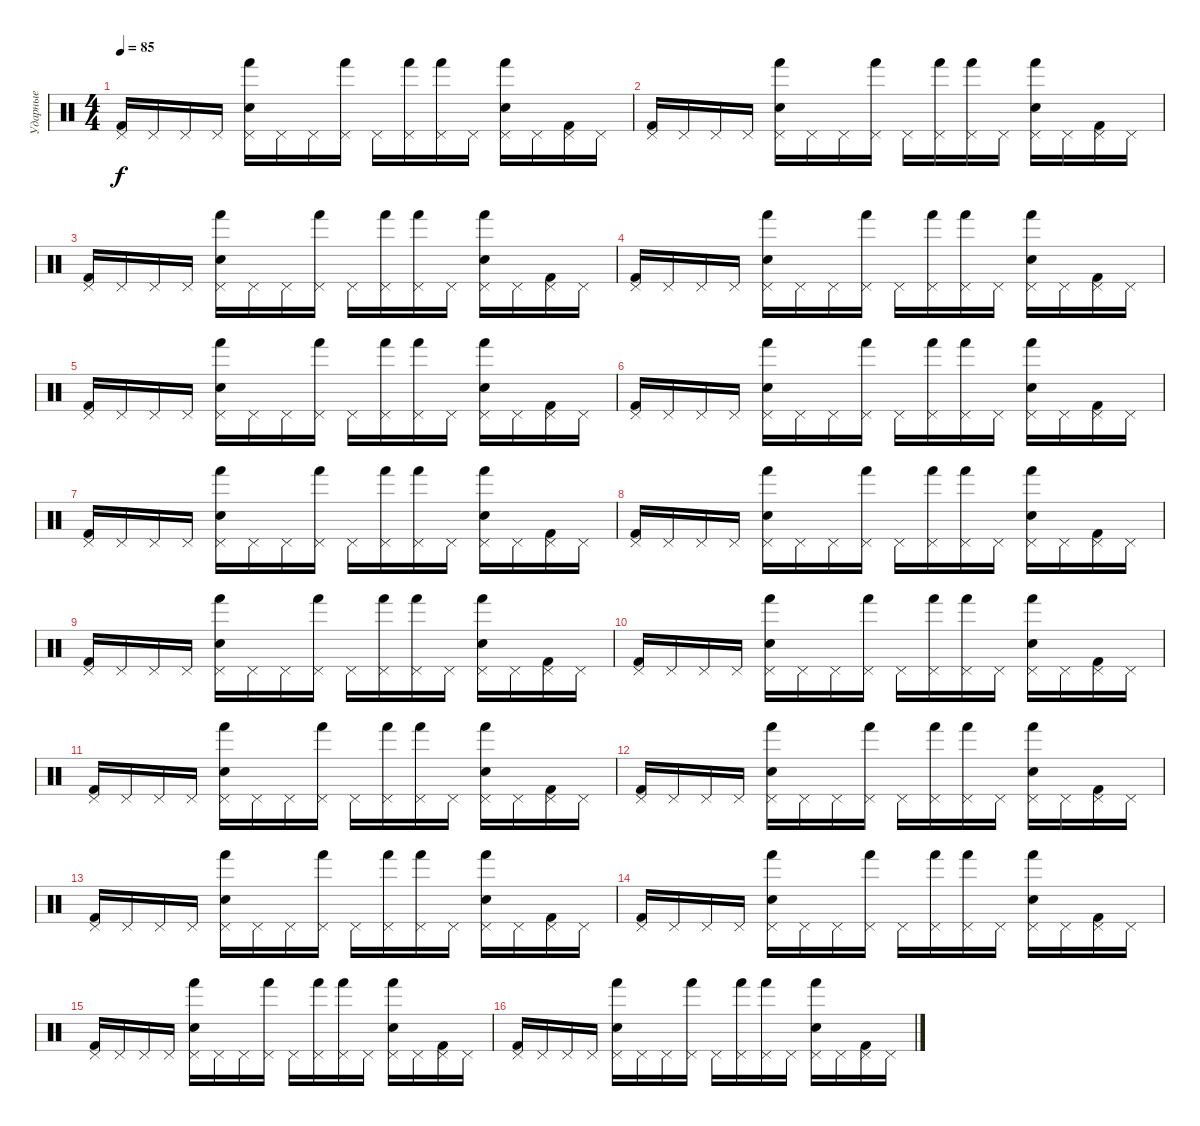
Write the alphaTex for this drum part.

\track ("Ударные" "Ударные") {instrument percussion}
\staff {score}
\articulation defaults
\ts (4 4)
\tempo 85
\clef neutral
\ks c
("Pedal Hi-Hat (hit)" "Kick (hit) 2").16{dy f} "Pedal Hi-Hat (hit)".16 "Pedal Hi-Hat (hit)".16 "Pedal Hi-Hat (hit)".16 ("Pedal Hi-Hat (hit)" "Electric Snare (hit)" "Hand (hit)").16 "Pedal Hi-Hat (hit)".16 "Pedal Hi-Hat (hit)".16 ("Pedal Hi-Hat (hit)" "Hand (hit)").16 "Pedal Hi-Hat (hit)".16 ("Pedal Hi-Hat (hit)" "Hand (hit)").16 ("Pedal Hi-Hat (hit)" "Hand (hit)").16 "Pedal Hi-Hat (hit)".16 ("Pedal Hi-Hat (hit)" "Electric Snare (hit)" "Hand (hit)").16 "Pedal Hi-Hat (hit)".16 ("Pedal Hi-Hat (hit)" "Kick (hit) 2").16 "Pedal Hi-Hat (hit)".16 |
("Pedal Hi-Hat (hit)" "Kick (hit) 2").16 "Pedal Hi-Hat (hit)".16 "Pedal Hi-Hat (hit)".16 "Pedal Hi-Hat (hit)".16 ("Pedal Hi-Hat (hit)" "Electric Snare (hit)" "Hand (hit)").16 "Pedal Hi-Hat (hit)".16 "Pedal Hi-Hat (hit)".16 ("Pedal Hi-Hat (hit)" "Hand (hit)").16 "Pedal Hi-Hat (hit)".16 ("Pedal Hi-Hat (hit)" "Hand (hit)").16 ("Pedal Hi-Hat (hit)" "Hand (hit)").16 "Pedal Hi-Hat (hit)".16 ("Pedal Hi-Hat (hit)" "Electric Snare (hit)" "Hand (hit)").16 "Pedal Hi-Hat (hit)".16 ("Pedal Hi-Hat (hit)" "Kick (hit) 2").16 "Pedal Hi-Hat (hit)".16 |
("Pedal Hi-Hat (hit)" "Kick (hit) 2").16 "Pedal Hi-Hat (hit)".16 "Pedal Hi-Hat (hit)".16 "Pedal Hi-Hat (hit)".16 ("Pedal Hi-Hat (hit)" "Electric Snare (hit)" "Hand (hit)").16 "Pedal Hi-Hat (hit)".16 "Pedal Hi-Hat (hit)".16 ("Pedal Hi-Hat (hit)" "Hand (hit)").16 "Pedal Hi-Hat (hit)".16 ("Pedal Hi-Hat (hit)" "Hand (hit)").16 ("Pedal Hi-Hat (hit)" "Hand (hit)").16 "Pedal Hi-Hat (hit)".16 ("Pedal Hi-Hat (hit)" "Electric Snare (hit)" "Hand (hit)").16 "Pedal Hi-Hat (hit)".16 ("Pedal Hi-Hat (hit)" "Kick (hit) 2").16 "Pedal Hi-Hat (hit)".16 |
("Pedal Hi-Hat (hit)" "Kick (hit) 2").16 "Pedal Hi-Hat (hit)".16 "Pedal Hi-Hat (hit)".16 "Pedal Hi-Hat (hit)".16 ("Pedal Hi-Hat (hit)" "Electric Snare (hit)" "Hand (hit)").16 "Pedal Hi-Hat (hit)".16 "Pedal Hi-Hat (hit)".16 ("Pedal Hi-Hat (hit)" "Hand (hit)").16 "Pedal Hi-Hat (hit)".16 ("Pedal Hi-Hat (hit)" "Hand (hit)").16 ("Pedal Hi-Hat (hit)" "Hand (hit)").16 "Pedal Hi-Hat (hit)".16 ("Pedal Hi-Hat (hit)" "Electric Snare (hit)" "Hand (hit)").16 "Pedal Hi-Hat (hit)".16 ("Pedal Hi-Hat (hit)" "Kick (hit) 2").16 "Pedal Hi-Hat (hit)".16 |
("Pedal Hi-Hat (hit)" "Kick (hit) 2").16 "Pedal Hi-Hat (hit)".16 "Pedal Hi-Hat (hit)".16 "Pedal Hi-Hat (hit)".16 ("Pedal Hi-Hat (hit)" "Electric Snare (hit)" "Hand (hit)").16 "Pedal Hi-Hat (hit)".16 "Pedal Hi-Hat (hit)".16 ("Pedal Hi-Hat (hit)" "Hand (hit)").16 "Pedal Hi-Hat (hit)".16 ("Pedal Hi-Hat (hit)" "Hand (hit)").16 ("Pedal Hi-Hat (hit)" "Hand (hit)").16 "Pedal Hi-Hat (hit)".16 ("Pedal Hi-Hat (hit)" "Electric Snare (hit)" "Hand (hit)").16 "Pedal Hi-Hat (hit)".16 ("Pedal Hi-Hat (hit)" "Kick (hit) 2").16 "Pedal Hi-Hat (hit)".16 |
("Pedal Hi-Hat (hit)" "Kick (hit) 2").16 "Pedal Hi-Hat (hit)".16 "Pedal Hi-Hat (hit)".16 "Pedal Hi-Hat (hit)".16 ("Pedal Hi-Hat (hit)" "Electric Snare (hit)" "Hand (hit)").16 "Pedal Hi-Hat (hit)".16 "Pedal Hi-Hat (hit)".16 ("Pedal Hi-Hat (hit)" "Hand (hit)").16 "Pedal Hi-Hat (hit)".16 ("Pedal Hi-Hat (hit)" "Hand (hit)").16 ("Pedal Hi-Hat (hit)" "Hand (hit)").16 "Pedal Hi-Hat (hit)".16 ("Pedal Hi-Hat (hit)" "Electric Snare (hit)" "Hand (hit)").16 "Pedal Hi-Hat (hit)".16 ("Pedal Hi-Hat (hit)" "Kick (hit) 2").16 "Pedal Hi-Hat (hit)".16 |
("Pedal Hi-Hat (hit)" "Kick (hit) 2").16 "Pedal Hi-Hat (hit)".16 "Pedal Hi-Hat (hit)".16 "Pedal Hi-Hat (hit)".16 ("Pedal Hi-Hat (hit)" "Electric Snare (hit)" "Hand (hit)").16 "Pedal Hi-Hat (hit)".16 "Pedal Hi-Hat (hit)".16 ("Pedal Hi-Hat (hit)" "Hand (hit)").16 "Pedal Hi-Hat (hit)".16 ("Pedal Hi-Hat (hit)" "Hand (hit)").16 ("Pedal Hi-Hat (hit)" "Hand (hit)").16 "Pedal Hi-Hat (hit)".16 ("Pedal Hi-Hat (hit)" "Electric Snare (hit)" "Hand (hit)").16 "Pedal Hi-Hat (hit)".16 ("Pedal Hi-Hat (hit)" "Kick (hit) 2").16 "Pedal Hi-Hat (hit)".16 |
("Pedal Hi-Hat (hit)" "Kick (hit) 2").16 "Pedal Hi-Hat (hit)".16 "Pedal Hi-Hat (hit)".16 "Pedal Hi-Hat (hit)".16 ("Pedal Hi-Hat (hit)" "Electric Snare (hit)" "Hand (hit)").16 "Pedal Hi-Hat (hit)".16 "Pedal Hi-Hat (hit)".16 ("Pedal Hi-Hat (hit)" "Hand (hit)").16 "Pedal Hi-Hat (hit)".16 ("Pedal Hi-Hat (hit)" "Hand (hit)").16 ("Pedal Hi-Hat (hit)" "Hand (hit)").16 "Pedal Hi-Hat (hit)".16 ("Pedal Hi-Hat (hit)" "Electric Snare (hit)" "Hand (hit)").16 "Pedal Hi-Hat (hit)".16 ("Pedal Hi-Hat (hit)" "Kick (hit) 2").16 "Pedal Hi-Hat (hit)".16 |
("Pedal Hi-Hat (hit)" "Kick (hit) 2").16 "Pedal Hi-Hat (hit)".16 "Pedal Hi-Hat (hit)".16 "Pedal Hi-Hat (hit)".16 ("Pedal Hi-Hat (hit)" "Electric Snare (hit)" "Hand (hit)").16 "Pedal Hi-Hat (hit)".16 "Pedal Hi-Hat (hit)".16 ("Pedal Hi-Hat (hit)" "Hand (hit)").16 "Pedal Hi-Hat (hit)".16 ("Pedal Hi-Hat (hit)" "Hand (hit)").16 ("Pedal Hi-Hat (hit)" "Hand (hit)").16 "Pedal Hi-Hat (hit)".16 ("Pedal Hi-Hat (hit)" "Electric Snare (hit)" "Hand (hit)").16 "Pedal Hi-Hat (hit)".16 ("Pedal Hi-Hat (hit)" "Kick (hit) 2").16 "Pedal Hi-Hat (hit)".16 |
("Pedal Hi-Hat (hit)" "Kick (hit) 2").16 "Pedal Hi-Hat (hit)".16 "Pedal Hi-Hat (hit)".16 "Pedal Hi-Hat (hit)".16 ("Pedal Hi-Hat (hit)" "Electric Snare (hit)" "Hand (hit)").16 "Pedal Hi-Hat (hit)".16 "Pedal Hi-Hat (hit)".16 ("Pedal Hi-Hat (hit)" "Hand (hit)").16 "Pedal Hi-Hat (hit)".16 ("Pedal Hi-Hat (hit)" "Hand (hit)").16 ("Pedal Hi-Hat (hit)" "Hand (hit)").16 "Pedal Hi-Hat (hit)".16 ("Pedal Hi-Hat (hit)" "Electric Snare (hit)" "Hand (hit)").16 "Pedal Hi-Hat (hit)".16 ("Pedal Hi-Hat (hit)" "Kick (hit) 2").16 "Pedal Hi-Hat (hit)".16 |
("Pedal Hi-Hat (hit)" "Kick (hit) 2").16 "Pedal Hi-Hat (hit)".16 "Pedal Hi-Hat (hit)".16 "Pedal Hi-Hat (hit)".16 ("Pedal Hi-Hat (hit)" "Electric Snare (hit)" "Hand (hit)").16 "Pedal Hi-Hat (hit)".16 "Pedal Hi-Hat (hit)".16 ("Pedal Hi-Hat (hit)" "Hand (hit)").16 "Pedal Hi-Hat (hit)".16 ("Pedal Hi-Hat (hit)" "Hand (hit)").16 ("Pedal Hi-Hat (hit)" "Hand (hit)").16 "Pedal Hi-Hat (hit)".16 ("Pedal Hi-Hat (hit)" "Electric Snare (hit)" "Hand (hit)").16 "Pedal Hi-Hat (hit)".16 ("Pedal Hi-Hat (hit)" "Kick (hit) 2").16 "Pedal Hi-Hat (hit)".16 |
("Pedal Hi-Hat (hit)" "Kick (hit) 2").16 "Pedal Hi-Hat (hit)".16 "Pedal Hi-Hat (hit)".16 "Pedal Hi-Hat (hit)".16 ("Pedal Hi-Hat (hit)" "Electric Snare (hit)" "Hand (hit)").16 "Pedal Hi-Hat (hit)".16 "Pedal Hi-Hat (hit)".16 ("Pedal Hi-Hat (hit)" "Hand (hit)").16 "Pedal Hi-Hat (hit)".16 ("Pedal Hi-Hat (hit)" "Hand (hit)").16 ("Pedal Hi-Hat (hit)" "Hand (hit)").16 "Pedal Hi-Hat (hit)".16 ("Pedal Hi-Hat (hit)" "Electric Snare (hit)" "Hand (hit)").16 "Pedal Hi-Hat (hit)".16 ("Pedal Hi-Hat (hit)" "Kick (hit) 2").16 "Pedal Hi-Hat (hit)".16 |
("Pedal Hi-Hat (hit)" "Kick (hit) 2").16 "Pedal Hi-Hat (hit)".16 "Pedal Hi-Hat (hit)".16 "Pedal Hi-Hat (hit)".16 ("Pedal Hi-Hat (hit)" "Electric Snare (hit)" "Hand (hit)").16 "Pedal Hi-Hat (hit)".16 "Pedal Hi-Hat (hit)".16 ("Pedal Hi-Hat (hit)" "Hand (hit)").16 "Pedal Hi-Hat (hit)".16 ("Pedal Hi-Hat (hit)" "Hand (hit)").16 ("Pedal Hi-Hat (hit)" "Hand (hit)").16 "Pedal Hi-Hat (hit)".16 ("Pedal Hi-Hat (hit)" "Electric Snare (hit)" "Hand (hit)").16 "Pedal Hi-Hat (hit)".16 ("Pedal Hi-Hat (hit)" "Kick (hit) 2").16 "Pedal Hi-Hat (hit)".16 |
("Pedal Hi-Hat (hit)" "Kick (hit) 2").16 "Pedal Hi-Hat (hit)".16 "Pedal Hi-Hat (hit)".16 "Pedal Hi-Hat (hit)".16 ("Pedal Hi-Hat (hit)" "Electric Snare (hit)" "Hand (hit)").16 "Pedal Hi-Hat (hit)".16 "Pedal Hi-Hat (hit)".16 ("Pedal Hi-Hat (hit)" "Hand (hit)").16 "Pedal Hi-Hat (hit)".16 ("Pedal Hi-Hat (hit)" "Hand (hit)").16 ("Pedal Hi-Hat (hit)" "Hand (hit)").16 "Pedal Hi-Hat (hit)".16 ("Pedal Hi-Hat (hit)" "Electric Snare (hit)" "Hand (hit)").16 "Pedal Hi-Hat (hit)".16 ("Pedal Hi-Hat (hit)" "Kick (hit) 2").16 "Pedal Hi-Hat (hit)".16 |
("Pedal Hi-Hat (hit)" "Kick (hit) 2").16 "Pedal Hi-Hat (hit)".16 "Pedal Hi-Hat (hit)".16 "Pedal Hi-Hat (hit)".16 ("Pedal Hi-Hat (hit)" "Electric Snare (hit)" "Hand (hit)").16 "Pedal Hi-Hat (hit)".16 "Pedal Hi-Hat (hit)".16 ("Pedal Hi-Hat (hit)" "Hand (hit)").16 "Pedal Hi-Hat (hit)".16 ("Pedal Hi-Hat (hit)" "Hand (hit)").16 ("Pedal Hi-Hat (hit)" "Hand (hit)").16 "Pedal Hi-Hat (hit)".16 ("Pedal Hi-Hat (hit)" "Electric Snare (hit)" "Hand (hit)").16 "Pedal Hi-Hat (hit)".16 ("Pedal Hi-Hat (hit)" "Kick (hit) 2").16 "Pedal Hi-Hat (hit)".16 |
("Pedal Hi-Hat (hit)" "Kick (hit) 2").16 "Pedal Hi-Hat (hit)".16 "Pedal Hi-Hat (hit)".16 "Pedal Hi-Hat (hit)".16 ("Pedal Hi-Hat (hit)" "Electric Snare (hit)" "Hand (hit)").16 "Pedal Hi-Hat (hit)".16 "Pedal Hi-Hat (hit)".16 ("Pedal Hi-Hat (hit)" "Hand (hit)").16 "Pedal Hi-Hat (hit)".16 ("Pedal Hi-Hat (hit)" "Hand (hit)").16 ("Pedal Hi-Hat (hit)" "Hand (hit)").16 "Pedal Hi-Hat (hit)".16 ("Pedal Hi-Hat (hit)" "Electric Snare (hit)" "Hand (hit)").16 "Pedal Hi-Hat (hit)".16 ("Pedal Hi-Hat (hit)" "Kick (hit) 2").16 "Pedal Hi-Hat (hit)".16
